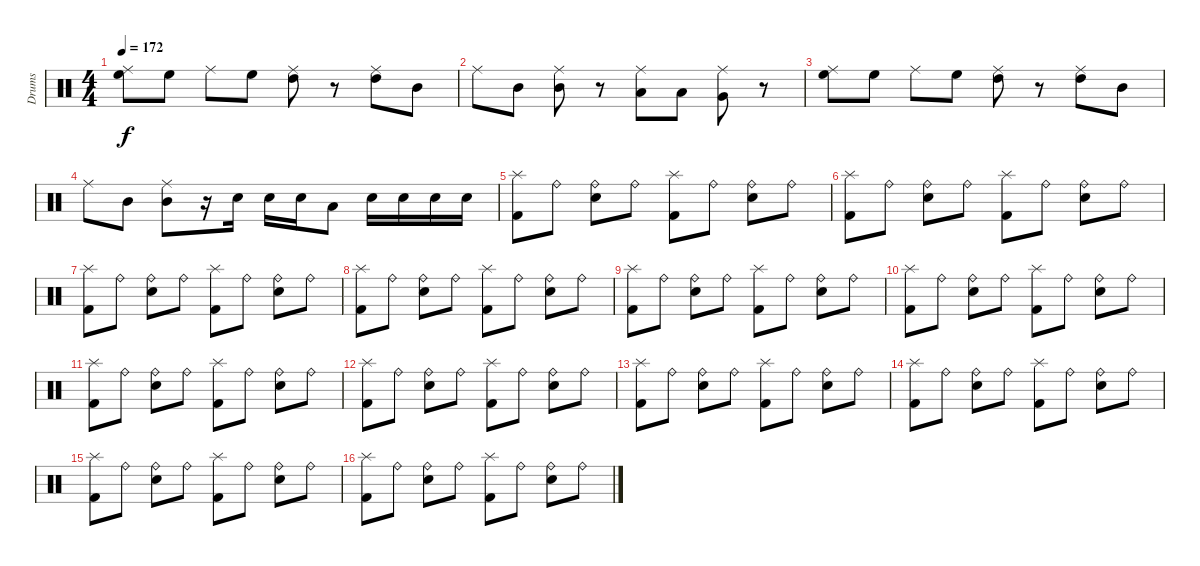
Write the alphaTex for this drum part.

\track ("Drums" "Drums") {instrument percussion}
\staff {score}
\articulation defaults
\ts (4 4)
\tempo 172
\clef neutral
\ks c
("Ride (middle)" "High Floor Tom (hit)").8{dy f} "High Floor Tom (hit)".8 "Ride (middle)".8 "High Floor Tom (hit)".8 ("Ride (middle)" "High Tom (hit)").8 r.8 ("Ride (middle)" "High Tom (hit)").8 "Mid Tom (hit)".8 |
"Ride (middle)".8 "Mid Tom (hit)".8 ("Ride (middle)" "Mid Tom (hit)").8 r.8 ("Ride (middle)" "Low Tom (hit)").8 "Low Tom (hit)".8 ("Ride (middle)" "Very Low Tom (hit)").8 r.8 |
("Ride (middle)" "High Floor Tom (hit)").8 "High Floor Tom (hit)".8 "Ride (middle)".8 "High Floor Tom (hit)".8 ("Ride (middle)" "High Tom (hit)").8 r.8 ("Ride (middle)" "High Tom (hit)").8 "Mid Tom (hit)".8 |
"Ride (middle)".8 "Mid Tom (hit)".8 ("Ride (middle)" "Mid Tom (hit)").8 r.16 "Electric Snare (hit)".16 "Electric Snare (hit)".16 "Electric Snare (hit)".16 "Low Tom (hit)".8 "Electric Snare (hit)".16 "Electric Snare (hit)".16 "Electric Snare (hit)".16 "Electric Snare (hit)".16 |
("Splash (hit)" "Kick (hit) 2").8 "Ride (bell)".8 ("Ride (bell)" "Snare (hit) 2").8 "Ride (bell)".8 ("Splash (hit)" "Kick (hit) 2").8 "Ride (bell)".8 ("Ride (bell)" "Snare (hit) 2").8 "Ride (bell)".8 |
("Splash (hit)" "Kick (hit) 2").8 "Ride (bell)".8 ("Ride (bell)" "Snare (hit) 2").8 "Ride (bell)".8 ("Splash (hit)" "Kick (hit) 2").8 "Ride (bell)".8 ("Ride (bell)" "Snare (hit) 2").8 "Ride (bell)".8 |
("Splash (hit)" "Kick (hit) 2").8 "Ride (bell)".8 ("Ride (bell)" "Snare (hit) 2").8 "Ride (bell)".8 ("Splash (hit)" "Kick (hit) 2").8 "Ride (bell)".8 ("Ride (bell)" "Snare (hit) 2").8 "Ride (bell)".8 |
("Splash (hit)" "Kick (hit) 2").8 "Ride (bell)".8 ("Ride (bell)" "Snare (hit) 2").8 "Ride (bell)".8 ("Splash (hit)" "Kick (hit) 2").8 "Ride (bell)".8 ("Ride (bell)" "Snare (hit) 2").8 "Ride (bell)".8 |
("Splash (hit)" "Kick (hit) 2").8 "Ride (bell)".8 ("Ride (bell)" "Snare (hit) 2").8 "Ride (bell)".8 ("Splash (hit)" "Kick (hit) 2").8 "Ride (bell)".8 ("Ride (bell)" "Snare (hit) 2").8 "Ride (bell)".8 |
("Splash (hit)" "Kick (hit) 2").8 "Ride (bell)".8 ("Ride (bell)" "Snare (hit) 2").8 "Ride (bell)".8 ("Splash (hit)" "Kick (hit) 2").8 "Ride (bell)".8 ("Ride (bell)" "Snare (hit) 2").8 "Ride (bell)".8 |
("Splash (hit)" "Kick (hit) 2").8 "Ride (bell)".8 ("Ride (bell)" "Snare (hit) 2").8 "Ride (bell)".8 ("Splash (hit)" "Kick (hit) 2").8 "Ride (bell)".8 ("Ride (bell)" "Snare (hit) 2").8 "Ride (bell)".8 |
("Splash (hit)" "Kick (hit) 2").8 "Ride (bell)".8 ("Ride (bell)" "Snare (hit) 2").8 "Ride (bell)".8 ("Splash (hit)" "Kick (hit) 2").8 "Ride (bell)".8 ("Ride (bell)" "Snare (hit) 2").8 "Ride (bell)".8 |
("Splash (hit)" "Kick (hit) 2").8 "Ride (bell)".8 ("Ride (bell)" "Snare (hit) 2").8 "Ride (bell)".8 ("Splash (hit)" "Kick (hit) 2").8 "Ride (bell)".8 ("Ride (bell)" "Snare (hit) 2").8 "Ride (bell)".8 |
("Splash (hit)" "Kick (hit) 2").8 "Ride (bell)".8 ("Ride (bell)" "Snare (hit) 2").8 "Ride (bell)".8 ("Splash (hit)" "Kick (hit) 2").8 "Ride (bell)".8 ("Ride (bell)" "Snare (hit) 2").8 "Ride (bell)".8 |
("Splash (hit)" "Kick (hit) 2").8 "Ride (bell)".8 ("Ride (bell)" "Snare (hit) 2").8 "Ride (bell)".8 ("Splash (hit)" "Kick (hit) 2").8 "Ride (bell)".8 ("Ride (bell)" "Snare (hit) 2").8 "Ride (bell)".8 |
("Splash (hit)" "Kick (hit) 2").8 "Ride (bell)".8 ("Ride (bell)" "Snare (hit) 2").8 "Ride (bell)".8 ("Splash (hit)" "Kick (hit) 2").8 "Ride (bell)".8 ("Ride (bell)" "Snare (hit) 2").8 "Ride (bell)".8
